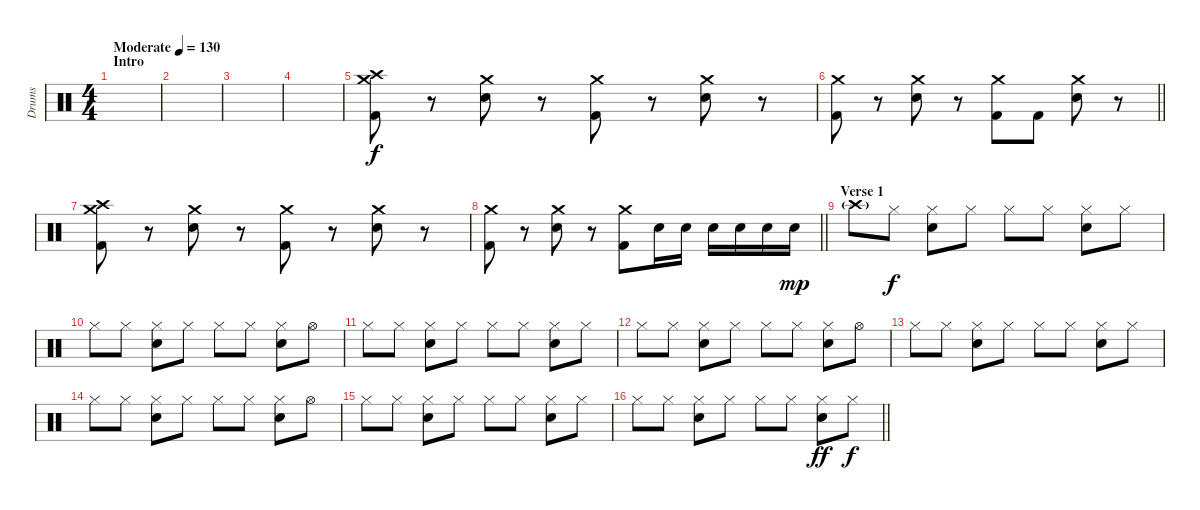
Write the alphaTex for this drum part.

\track ("Drums" "Drums") {instrument percussion}
\staff {score}
\articulation defaults
\ts (4 4)
\section ("" "Intro")
\tempo (130 "Moderate")
\clef neutral
\ks c
|
|
|
|
("Crash medium (hit)" "Crash high (hit)" "Kick (hit) 2").8 r.8 ("Crash medium (hit)" "Electric Snare (hit)").8 r.8 ("Crash medium (hit)" "Kick (hit) 2").8 r.8 ("Crash medium (hit)" "Electric Snare (hit)").8 r.8 |
\barLineRight lightlight
("Crash medium (hit)" "Kick (hit) 2").8 r.8 ("Crash medium (hit)" "Electric Snare (hit)").8 r.8 ("Crash medium (hit)" "Kick (hit) 2").8 "Kick (hit) 2".8 ("Crash medium (hit)" "Electric Snare (hit)").8 r.8 |
("Crash medium (hit)" "Crash high (hit)" "Kick (hit) 2").8 r.8 ("Crash medium (hit)" "Electric Snare (hit)").8 r.8 ("Crash medium (hit)" "Kick (hit) 2").8 r.8 ("Crash medium (hit)" "Electric Snare (hit)").8 r.8 |
\barLineRight lightlight
("Crash medium (hit)" "Kick (hit) 2").8 r.8 ("Crash medium (hit)" "Electric Snare (hit)").8 r.8 ("Crash medium (hit)" "Kick (hit) 2").8 "Electric Snare (hit)".16 "Electric Snare (hit)".16 "Electric Snare (hit)".16 "Electric Snare (hit)".16 "Electric Snare (hit)".16 "Electric Snare (hit)".16{dy mp} |
\section ("" "Verse 1")
"Crash high (hit)"{g}.8 "Hi-Hat (closed)".8{dy f} ("Hi-Hat (closed)" "Electric Snare (hit)").8 "Hi-Hat (closed)".8 "Hi-Hat (closed)".8 "Hi-Hat (closed)".8 ("Hi-Hat (closed)" "Electric Snare (hit)").8 "Hi-Hat (closed)".8 |
"Hi-Hat (closed)".8 "Hi-Hat (closed)".8 ("Hi-Hat (closed)" "Electric Snare (hit)").8 "Hi-Hat (closed)".8 "Hi-Hat (closed)".8 "Hi-Hat (closed)".8 ("Hi-Hat (closed)" "Electric Snare (hit)").8 "Hi-Hat (open)".8 |
"Hi-Hat (closed)".8 "Hi-Hat (closed)".8 ("Hi-Hat (closed)" "Electric Snare (hit)").8 "Hi-Hat (closed)".8 "Hi-Hat (closed)".8 "Hi-Hat (closed)".8 ("Hi-Hat (closed)" "Electric Snare (hit)").8 "Hi-Hat (closed)".8 |
"Hi-Hat (closed)".8 "Hi-Hat (closed)".8 ("Hi-Hat (closed)" "Electric Snare (hit)").8 "Hi-Hat (closed)".8 "Hi-Hat (closed)".8 "Hi-Hat (closed)".8 ("Hi-Hat (closed)" "Electric Snare (hit)").8 "Hi-Hat (open)".8 |
"Hi-Hat (closed)".8 "Hi-Hat (closed)".8 ("Hi-Hat (closed)" "Electric Snare (hit)").8 "Hi-Hat (closed)".8 "Hi-Hat (closed)".8 "Hi-Hat (closed)".8 ("Hi-Hat (closed)" "Electric Snare (hit)").8 "Hi-Hat (closed)".8 |
"Hi-Hat (closed)".8 "Hi-Hat (closed)".8 ("Hi-Hat (closed)" "Electric Snare (hit)").8 "Hi-Hat (closed)".8 "Hi-Hat (closed)".8 "Hi-Hat (closed)".8 ("Hi-Hat (closed)" "Electric Snare (hit)").8 "Hi-Hat (open)".8 |
"Hi-Hat (closed)".8 "Hi-Hat (closed)".8 ("Hi-Hat (closed)" "Electric Snare (hit)").8 "Hi-Hat (closed)".8 "Hi-Hat (closed)".8 "Hi-Hat (closed)".8 ("Hi-Hat (closed)" "Electric Snare (hit)").8 "Hi-Hat (closed)".8 |
\barLineRight lightlight "Hi-Hat (closed)".8 "Hi-Hat (closed)".8
("Hi-Hat (closed)" "Electric Snare (hit)").8 "Hi-Hat (closed)".8 "Hi-Hat (closed)".8 "Hi-Hat (closed)".8 ("Hi-Hat (closed)" "Electric Snare (hit)").8{dy ff} "Hi-Hat (closed)".8{dy f}
